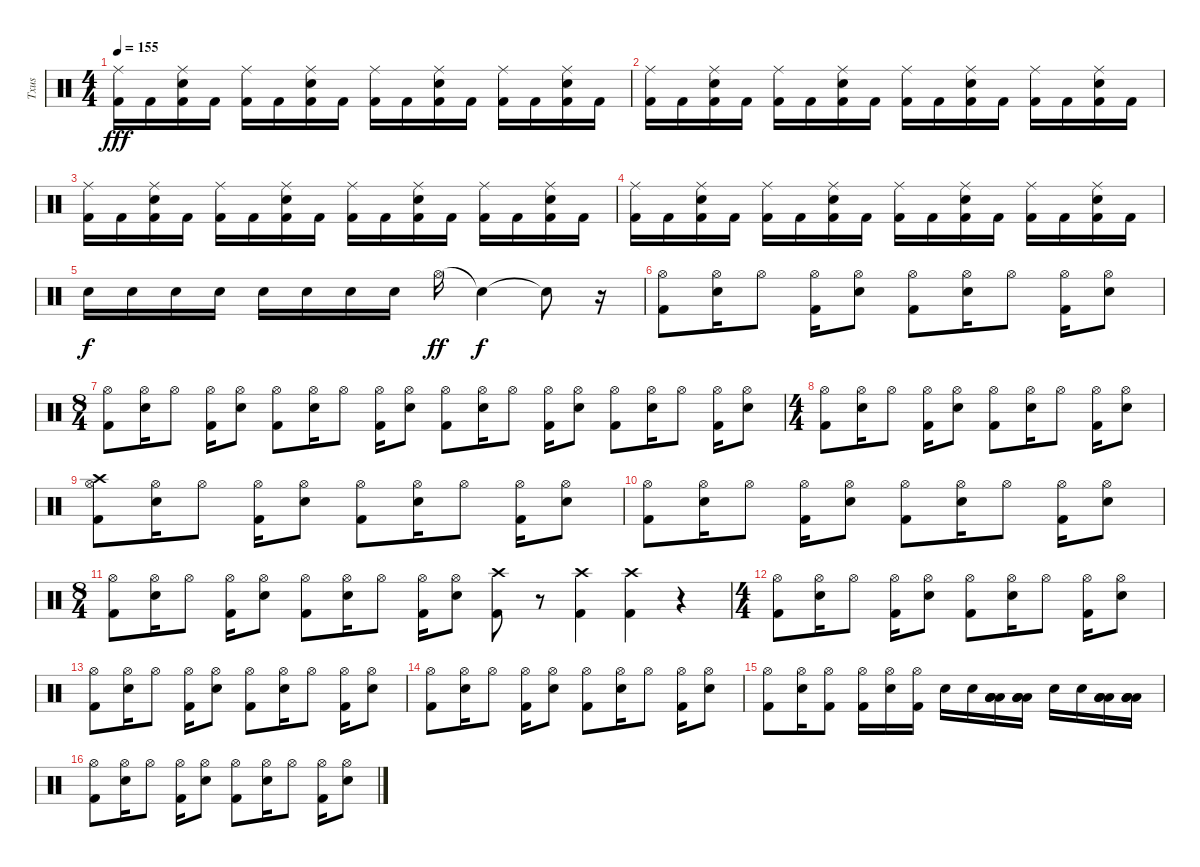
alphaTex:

\track ("Txus" "Txus") {instrument percussion}
\staff {score}
\articulation defaults
\ts (4 4)
\tempo 155
\clef neutral
\ks c
("Kick (hit) 2" "Ride (middle)").16{dy fff} "Kick (hit) 2".16 ("Kick (hit) 2" "Snare (hit) 2" "Ride (middle)").16 "Kick (hit) 2".16 ("Kick (hit) 2" "Ride (middle)").16 "Kick (hit) 2".16 ("Kick (hit) 2" "Snare (hit) 2" "Ride (middle)").16 "Kick (hit) 2".16 ("Kick (hit) 2" "Ride (middle)").16 "Kick (hit) 2".16 ("Kick (hit) 2" "Snare (hit) 2" "Ride (middle)").16 "Kick (hit) 2".16 ("Kick (hit) 2" "Ride (middle)").16 "Kick (hit) 2".16 ("Kick (hit) 2" "Snare (hit) 2" "Ride (middle)").16 "Kick (hit) 2".16 |
("Kick (hit) 2" "Ride (middle)").16 "Kick (hit) 2".16 ("Kick (hit) 2" "Snare (hit) 2" "Ride (middle)").16 "Kick (hit) 2".16 ("Kick (hit) 2" "Ride (middle)").16 "Kick (hit) 2".16 ("Kick (hit) 2" "Snare (hit) 2" "Ride (middle)").16 "Kick (hit) 2".16 ("Kick (hit) 2" "Ride (middle)").16 "Kick (hit) 2".16 ("Kick (hit) 2" "Snare (hit) 2" "Ride (middle)").16 "Kick (hit) 2".16 ("Kick (hit) 2" "Ride (middle)").16 "Kick (hit) 2".16 ("Kick (hit) 2" "Snare (hit) 2" "Ride (middle)").16 "Kick (hit) 2".16 |
("Kick (hit) 2" "Ride (middle)").16 "Kick (hit) 2".16 ("Kick (hit) 2" "Snare (hit) 2" "Ride (middle)").16 "Kick (hit) 2".16 ("Kick (hit) 2" "Ride (middle)").16 "Kick (hit) 2".16 ("Kick (hit) 2" "Snare (hit) 2" "Ride (middle)").16 "Kick (hit) 2".16 ("Kick (hit) 2" "Ride (middle)").16 "Kick (hit) 2".16 ("Kick (hit) 2" "Snare (hit) 2" "Ride (middle)").16 "Kick (hit) 2".16 ("Kick (hit) 2" "Ride (middle)").16 "Kick (hit) 2".16 ("Kick (hit) 2" "Snare (hit) 2" "Ride (middle)").16 "Kick (hit) 2".16 |
("Kick (hit) 2" "Ride (middle)").16 "Kick (hit) 2".16 ("Kick (hit) 2" "Snare (hit) 2" "Ride (middle)").16 "Kick (hit) 2".16 ("Kick (hit) 2" "Ride (middle)").16 "Kick (hit) 2".16 ("Kick (hit) 2" "Snare (hit) 2" "Ride (middle)").16 "Kick (hit) 2".16 ("Kick (hit) 2" "Ride (middle)").16 "Kick (hit) 2".16 ("Kick (hit) 2" "Snare (hit) 2" "Ride (middle)").16 "Kick (hit) 2".16 ("Kick (hit) 2" "Ride (middle)").16 "Kick (hit) 2".16 ("Kick (hit) 2" "Snare (hit) 2" "Ride (middle)").16 "Kick (hit) 2".16 |
"Snare (hit) 2".16{dy f} "Snare (hit) 2".16 "Snare (hit) 2".16 "Snare (hit) 2".16 "Snare (hit) 2".16 "Snare (hit) 2".16 "Snare (hit) 2".16 "Snare (hit) 2".16 "Hi-Hat (open)".16{dy ff} "Snare (hit)"{t}.4{dy f} "Snare (hit)"{t}.8 r.16 |
("Kick (hit) 2" "Hi-Hat (open)").8 ("Snare (hit) 2" "Hi-Hat (open)").16 "Hi-Hat (open)".8 ("Kick (hit) 2" "Hi-Hat (open)").16 ("Snare (hit) 2" "Hi-Hat (open)").8 ("Kick (hit) 2" "Hi-Hat (open)").8 ("Snare (hit) 2" "Hi-Hat (open)").16 "Hi-Hat (open)".8 ("Kick (hit) 2" "Hi-Hat (open)").16 ("Snare (hit) 2" "Hi-Hat (open)").8 |
\ts (8 4)
("Kick (hit) 2" "Hi-Hat (open)").8 ("Snare (hit) 2" "Hi-Hat (open)").16 "Hi-Hat (open)".8 ("Kick (hit) 2" "Hi-Hat (open)").16 ("Snare (hit) 2" "Hi-Hat (open)").8 ("Kick (hit) 2" "Hi-Hat (open)").8 ("Snare (hit) 2" "Hi-Hat (open)").16 "Hi-Hat (open)".8 ("Kick (hit) 2" "Hi-Hat (open)").16 ("Snare (hit) 2" "Hi-Hat (open)").8 ("Kick (hit) 2" "Hi-Hat (open)").8 ("Snare (hit) 2" "Hi-Hat (open)").16 "Hi-Hat (open)".8 ("Kick (hit) 2" "Hi-Hat (open)").16 ("Snare (hit) 2" "Hi-Hat (open)").8 ("Kick (hit) 2" "Hi-Hat (open)").8 ("Snare (hit) 2" "Hi-Hat (open)").16 "Hi-Hat (open)".8 ("Kick (hit) 2" "Hi-Hat (open)").16 ("Snare (hit) 2" "Hi-Hat (open)").8 |
\ts (4 4)
("Kick (hit) 2" "Hi-Hat (open)").8 ("Snare (hit) 2" "Hi-Hat (open)").16 "Hi-Hat (open)".8 ("Kick (hit) 2" "Hi-Hat (open)").16 ("Snare (hit) 2" "Hi-Hat (open)").8 ("Kick (hit) 2" "Hi-Hat (open)").8 ("Snare (hit) 2" "Hi-Hat (open)").16 "Hi-Hat (open)".8 ("Kick (hit) 2" "Hi-Hat (open)").16 ("Snare (hit) 2" "Hi-Hat (open)").8 |
("Kick (hit) 2" "Hi-Hat (open)" "Crash high (hit)").8 ("Snare (hit) 2" "Hi-Hat (open)").16 "Hi-Hat (open)".8 ("Kick (hit) 2" "Hi-Hat (open)").16 ("Snare (hit) 2" "Hi-Hat (open)").8 ("Kick (hit) 2" "Hi-Hat (open)").8 ("Snare (hit) 2" "Hi-Hat (open)").16 "Hi-Hat (open)".8 ("Kick (hit) 2" "Hi-Hat (open)").16 ("Snare (hit) 2" "Hi-Hat (open)").8 |
("Kick (hit) 2" "Hi-Hat (open)").8 ("Snare (hit) 2" "Hi-Hat (open)").16 "Hi-Hat (open)".8 ("Kick (hit) 2" "Hi-Hat (open)").16 ("Snare (hit) 2" "Hi-Hat (open)").8 ("Kick (hit) 2" "Hi-Hat (open)").8 ("Snare (hit) 2" "Hi-Hat (open)").16 "Hi-Hat (open)".8 ("Kick (hit) 2" "Hi-Hat (open)").16 ("Snare (hit) 2" "Hi-Hat (open)").8 |
\ts (8 4)
("Kick (hit) 2" "Hi-Hat (open)").8 ("Snare (hit) 2" "Hi-Hat (open)").16 "Hi-Hat (open)".8 ("Kick (hit) 2" "Hi-Hat (open)").16 ("Snare (hit) 2" "Hi-Hat (open)").8 ("Kick (hit) 2" "Hi-Hat (open)").8 ("Snare (hit) 2" "Hi-Hat (open)").16 "Hi-Hat (open)".8 ("Kick (hit) 2" "Hi-Hat (open)").16 ("Snare (hit) 2" "Hi-Hat (open)").8 ("Kick (hit) 2" "Crash high (hit)").8 r.8 ("Kick (hit) 2" "Crash high (hit)").4 ("Kick (hit) 2" "Crash high (hit)").4 r.4 |
\ts (4 4)
("Kick (hit) 2" "Hi-Hat (open)").8 ("Snare (hit) 2" "Hi-Hat (open)").16 "Hi-Hat (open)".8 ("Kick (hit) 2" "Hi-Hat (open)").16 ("Snare (hit) 2" "Hi-Hat (open)").8 ("Kick (hit) 2" "Hi-Hat (open)").8 ("Snare (hit) 2" "Hi-Hat (open)").16 "Hi-Hat (open)".8 ("Kick (hit) 2" "Hi-Hat (open)").16 ("Snare (hit) 2" "Hi-Hat (open)").8 |
("Kick (hit) 2" "Hi-Hat (open)").8 ("Snare (hit) 2" "Hi-Hat (open)").16 "Hi-Hat (open)".8 ("Kick (hit) 2" "Hi-Hat (open)").16 ("Snare (hit) 2" "Hi-Hat (open)").8 ("Kick (hit) 2" "Hi-Hat (open)").8 ("Snare (hit) 2" "Hi-Hat (open)").16 "Hi-Hat (open)".8 ("Kick (hit) 2" "Hi-Hat (open)").16 ("Snare (hit) 2" "Hi-Hat (open)").8 |
("Kick (hit) 2" "Hi-Hat (open)").8 ("Snare (hit) 2" "Hi-Hat (open)").16 "Hi-Hat (open)".8 ("Kick (hit) 2" "Hi-Hat (open)").16 ("Snare (hit) 2" "Hi-Hat (open)").8 ("Kick (hit) 2" "Hi-Hat (open)").8 ("Snare (hit) 2" "Hi-Hat (open)").16 "Hi-Hat (open)".8 ("Kick (hit) 2" "Hi-Hat (open)").16 ("Snare (hit) 2" "Hi-Hat (open)").8 |
("Hi-Hat (open)" "Kick (hit) 2").8 ("Hi-Hat (open)" "Snare (hit) 2").16 ("Hi-Hat (open)" "Kick (hit) 2").8 ("Hi-Hat (open)" "Kick (hit) 2").16 ("Hi-Hat (open)" "Snare (hit) 2").16 ("Hi-Hat (open)" "Kick (hit) 2").16 "Snare (hit) 2".16 "Snare (hit) 2".16 ("Low Tom (hit)" "Low Tom (hit)" "Low Tom (hit)" "Low Tom (hit)").16 ("Low Tom (hit)" "Low Tom (hit)" "Low Tom (hit)" "Low Tom (hit)").16 "Snare (hit) 2".16 "Snare (hit) 2".16 ("Low Tom (hit)" "Low Tom (hit)" "Low Tom (hit)" "Low Tom (hit)").16 ("Low Tom (hit)" "Low Tom (hit)" "Low Tom (hit)" "Low Tom (hit)").16 |
("Kick (hit) 2" "Hi-Hat (open)").8 ("Snare (hit) 2" "Hi-Hat (open)").16 "Hi-Hat (open)".8 ("Kick (hit) 2" "Hi-Hat (open)").16 ("Snare (hit) 2" "Hi-Hat (open)").8 ("Kick (hit) 2" "Hi-Hat (open)").8 ("Snare (hit) 2" "Hi-Hat (open)").16 "Hi-Hat (open)".8 ("Kick (hit) 2" "Hi-Hat (open)").16 ("Snare (hit) 2" "Hi-Hat (open)").8
